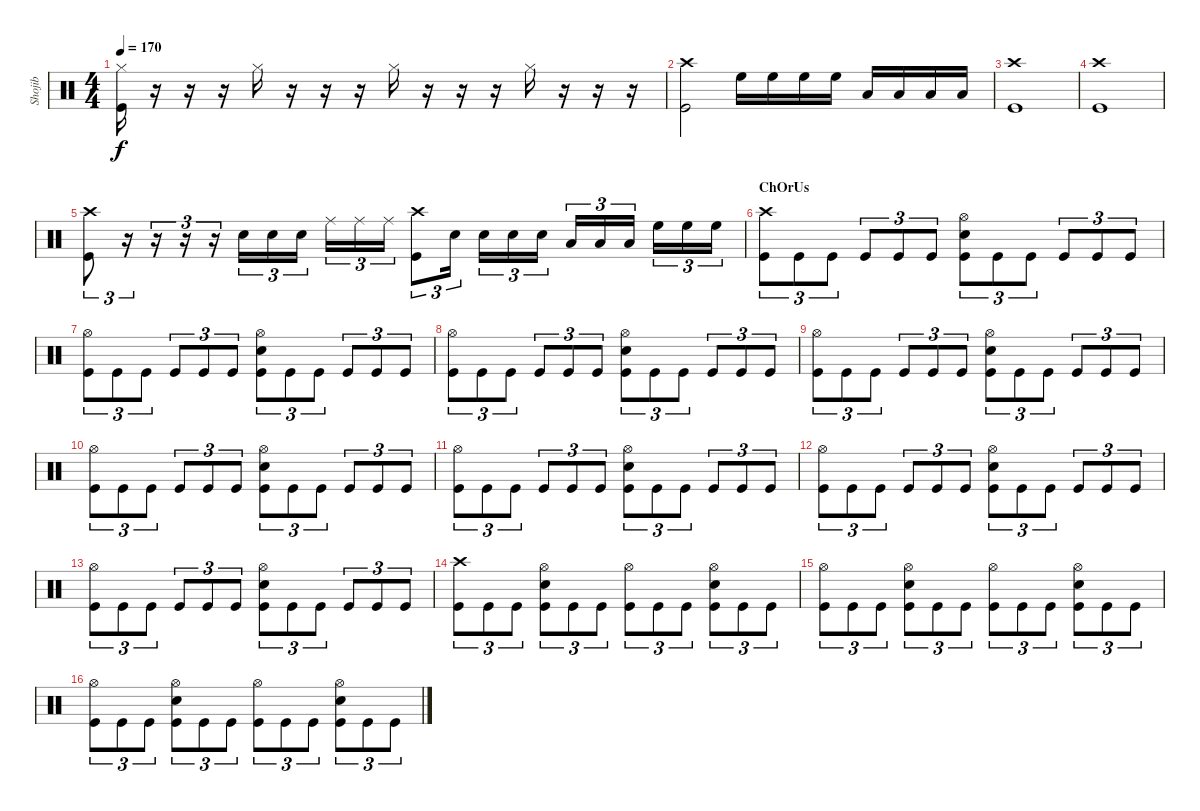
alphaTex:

\track ("Shojib" "Shojib") {instrument percussion}
\staff {score}
\articulation defaults
\ts (4 4)
\tempo 170
\clef neutral
\ks c
("Hi-Hat (closed)" "Kick (hit)").16{dy f} r.16 r.16 r.16 "Hi-Hat (closed)".16 r.16 r.16 r.16 "Hi-Hat (closed)".16 r.16 r.16 r.16 "Hi-Hat (closed)".16 r.16 r.16 r.16 |
("Crash high (hit)" "Kick (hit)").2 "High Floor Tom (hit)".16 "High Floor Tom (hit)".16 "High Floor Tom (hit)".16 "High Floor Tom (hit)".16 "Low Tom (hit)".16 "Low Tom (hit)".16 "Low Tom (hit)".16 "Low Tom (hit)".16 |
("Crash high (hit)" "Kick (hit)").1 |
("Crash high (hit)" "Kick (hit)").1 |
("Crash high (hit)" "Kick (hit)").8{tu (3 2)} r.16{tu (3 2)} r.16{tu (3 2)} r.16{tu (3 2)} r.16{tu (3 2)} "Electric Snare (hit)".16{tu (3 2)} "Electric Snare (hit)".16{tu (3 2)} "Electric Snare (hit)".16{tu (3 2)} "Ride (middle)".16{tu (3 2)} "Ride (middle)".16{tu (3 2)} "Ride (middle)".16{tu (3 2)} ("Crash high (hit)" "Kick (hit)").8{tu (3 2)} "Electric Snare (hit)".16{tu (3 2)} "Electric Snare (hit)".16{tu (3 2)} "Electric Snare (hit)".16{tu (3 2)} "Electric Snare (hit)".16{tu (3 2)} "Low Tom (hit)".16{tu (3 2)} "Low Tom (hit)".16{tu (3 2)} "Low Tom (hit)".16{tu (3 2)} "High Floor Tom (hit)".16{tu (3 2)} "High Floor Tom (hit)".16{tu (3 2)} "High Floor Tom (hit)".16{tu (3 2)} |
\section ("" "ChOrUs")
("Crash high (hit)" "Kick (hit)").8{tu (3 2)} "Kick (hit)".8{tu (3 2)} "Kick (hit)".8{tu (3 2)} "Kick (hit)".8{tu (3 2)} "Kick (hit)".8{tu (3 2)} "Kick (hit)".8{tu (3 2)} ("Hi-Hat (open)" "Electric Snare (hit)" "Kick (hit)").8{tu (3 2)} "Kick (hit)".8{tu (3 2)} "Kick (hit)".8{tu (3 2)} "Kick (hit)".8{tu (3 2)} "Kick (hit)".8{tu (3 2)} "Kick (hit)".8{tu (3 2)} |
("Hi-Hat (open)" "Kick (hit)").8{tu (3 2)} "Kick (hit)".8{tu (3 2)} "Kick (hit)".8{tu (3 2)} "Kick (hit)".8{tu (3 2)} "Kick (hit)".8{tu (3 2)} "Kick (hit)".8{tu (3 2)} ("Hi-Hat (open)" "Electric Snare (hit)" "Kick (hit)").8{tu (3 2)} "Kick (hit)".8{tu (3 2)} "Kick (hit)".8{tu (3 2)} "Kick (hit)".8{tu (3 2)} "Kick (hit)".8{tu (3 2)} "Kick (hit)".8{tu (3 2)} |
("Hi-Hat (open)" "Kick (hit)").8{tu (3 2)} "Kick (hit)".8{tu (3 2)} "Kick (hit)".8{tu (3 2)} "Kick (hit)".8{tu (3 2)} "Kick (hit)".8{tu (3 2)} "Kick (hit)".8{tu (3 2)} ("Hi-Hat (open)" "Electric Snare (hit)" "Kick (hit)").8{tu (3 2)} "Kick (hit)".8{tu (3 2)} "Kick (hit)".8{tu (3 2)} "Kick (hit)".8{tu (3 2)} "Kick (hit)".8{tu (3 2)} "Kick (hit)".8{tu (3 2)} |
("Hi-Hat (open)" "Kick (hit)").8{tu (3 2)} "Kick (hit)".8{tu (3 2)} "Kick (hit)".8{tu (3 2)} "Kick (hit)".8{tu (3 2)} "Kick (hit)".8{tu (3 2)} "Kick (hit)".8{tu (3 2)} ("Hi-Hat (open)" "Electric Snare (hit)" "Kick (hit)").8{tu (3 2)} "Kick (hit)".8{tu (3 2)} "Kick (hit)".8{tu (3 2)} "Kick (hit)".8{tu (3 2)} "Kick (hit)".8{tu (3 2)} "Kick (hit)".8{tu (3 2)} |
("Hi-Hat (open)" "Kick (hit)").8{tu (3 2)} "Kick (hit)".8{tu (3 2)} "Kick (hit)".8{tu (3 2)} "Kick (hit)".8{tu (3 2)} "Kick (hit)".8{tu (3 2)} "Kick (hit)".8{tu (3 2)} ("Hi-Hat (open)" "Electric Snare (hit)" "Kick (hit)").8{tu (3 2)} "Kick (hit)".8{tu (3 2)} "Kick (hit)".8{tu (3 2)} "Kick (hit)".8{tu (3 2)} "Kick (hit)".8{tu (3 2)} "Kick (hit)".8{tu (3 2)} |
("Hi-Hat (open)" "Kick (hit)").8{tu (3 2)} "Kick (hit)".8{tu (3 2)} "Kick (hit)".8{tu (3 2)} "Kick (hit)".8{tu (3 2)} "Kick (hit)".8{tu (3 2)} "Kick (hit)".8{tu (3 2)} ("Hi-Hat (open)" "Electric Snare (hit)" "Kick (hit)").8{tu (3 2)} "Kick (hit)".8{tu (3 2)} "Kick (hit)".8{tu (3 2)} "Kick (hit)".8{tu (3 2)} "Kick (hit)".8{tu (3 2)} "Kick (hit)".8{tu (3 2)} |
("Hi-Hat (open)" "Kick (hit)").8{tu (3 2)} "Kick (hit)".8{tu (3 2)} "Kick (hit)".8{tu (3 2)} "Kick (hit)".8{tu (3 2)} "Kick (hit)".8{tu (3 2)} "Kick (hit)".8{tu (3 2)} ("Hi-Hat (open)" "Electric Snare (hit)" "Kick (hit)").8{tu (3 2)} "Kick (hit)".8{tu (3 2)} "Kick (hit)".8{tu (3 2)} "Kick (hit)".8{tu (3 2)} "Kick (hit)".8{tu (3 2)} "Kick (hit)".8{tu (3 2)} |
("Hi-Hat (open)" "Kick (hit)").8{tu (3 2)} "Kick (hit)".8{tu (3 2)} "Kick (hit)".8{tu (3 2)} "Kick (hit)".8{tu (3 2)} "Kick (hit)".8{tu (3 2)} "Kick (hit)".8{tu (3 2)} ("Hi-Hat (open)" "Electric Snare (hit)" "Kick (hit)").8{tu (3 2)} "Kick (hit)".8{tu (3 2)} "Kick (hit)".8{tu (3 2)} "Kick (hit)".8{tu (3 2)} "Kick (hit)".8{tu (3 2)} "Kick (hit)".8{tu (3 2)} |
("Crash high (hit)" "Kick (hit)").8{tu (3 2)} "Kick (hit)".8{tu (3 2)} "Kick (hit)".8{tu (3 2)} ("Hi-Hat (open)" "Electric Snare (hit)" "Kick (hit)").8{tu (3 2)} "Kick (hit)".8{tu (3 2)} "Kick (hit)".8{tu (3 2)} ("Hi-Hat (open)" "Kick (hit)").8{tu (3 2)} "Kick (hit)".8{tu (3 2)} "Kick (hit)".8{tu (3 2)} ("Hi-Hat (open)" "Electric Snare (hit)" "Kick (hit)").8{tu (3 2)} "Kick (hit)".8{tu (3 2)} "Kick (hit)".8{tu (3 2)} |
("Hi-Hat (open)" "Kick (hit)").8{tu (3 2)} "Kick (hit)".8{tu (3 2)} "Kick (hit)".8{tu (3 2)} ("Hi-Hat (open)" "Electric Snare (hit)" "Kick (hit)").8{tu (3 2)} "Kick (hit)".8{tu (3 2)} "Kick (hit)".8{tu (3 2)} ("Hi-Hat (open)" "Kick (hit)").8{tu (3 2)} "Kick (hit)".8{tu (3 2)} "Kick (hit)".8{tu (3 2)} ("Hi-Hat (open)" "Electric Snare (hit)" "Kick (hit)").8{tu (3 2)} "Kick (hit)".8{tu (3 2)} "Kick (hit)".8{tu (3 2)} |
("Hi-Hat (open)" "Kick (hit)").8{tu (3 2)} "Kick (hit)".8{tu (3 2)} "Kick (hit)".8{tu (3 2)} ("Hi-Hat (open)" "Electric Snare (hit)" "Kick (hit)").8{tu (3 2)} "Kick (hit)".8{tu (3 2)} "Kick (hit)".8{tu (3 2)} ("Hi-Hat (open)" "Kick (hit)").8{tu (3 2)} "Kick (hit)".8{tu (3 2)} "Kick (hit)".8{tu (3 2)} ("Hi-Hat (open)" "Electric Snare (hit)" "Kick (hit)").8{tu (3 2)} "Kick (hit)".8{tu (3 2)} "Kick (hit)".8{tu (3 2)}
